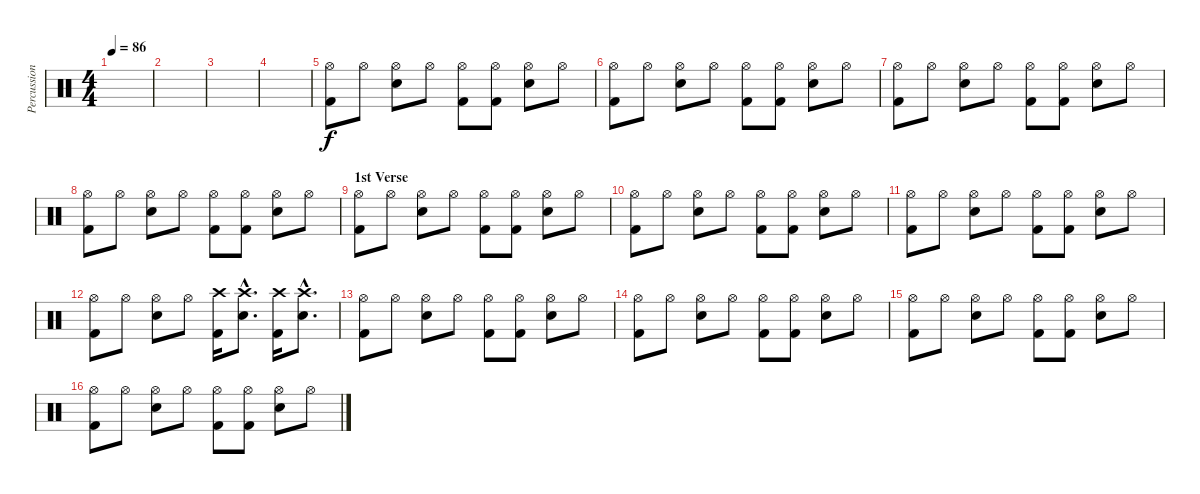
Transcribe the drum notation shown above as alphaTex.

\track ("Percussion" "Percussion") {instrument percussion}
\staff {score}
\articulation defaults
\ts (4 4)
\tempo 86
\clef neutral
\ks c
|
|
|
|
("Hi-Hat (open)" "Kick (hit) 2").8 "Hi-Hat (open)".8 ("Hi-Hat (open)" "Snare (hit) 2").8 "Hi-Hat (open)".8 ("Hi-Hat (open)" "Kick (hit) 2").8 ("Hi-Hat (open)" "Kick (hit) 2").8 ("Hi-Hat (open)" "Snare (hit) 2").8 "Hi-Hat (open)".8 |
("Hi-Hat (open)" "Kick (hit) 2").8 "Hi-Hat (open)".8 ("Hi-Hat (open)" "Snare (hit) 2").8 "Hi-Hat (open)".8 ("Hi-Hat (open)" "Kick (hit) 2").8 ("Hi-Hat (open)" "Kick (hit) 2").8 ("Hi-Hat (open)" "Snare (hit) 2").8 "Hi-Hat (open)".8 |
("Hi-Hat (open)" "Kick (hit) 2").8 "Hi-Hat (open)".8 ("Hi-Hat (open)" "Snare (hit) 2").8 "Hi-Hat (open)".8 ("Hi-Hat (open)" "Kick (hit) 2").8 ("Hi-Hat (open)" "Kick (hit) 2").8 ("Hi-Hat (open)" "Snare (hit) 2").8 "Hi-Hat (open)".8 |
("Hi-Hat (open)" "Kick (hit) 2").8 "Hi-Hat (open)".8 ("Hi-Hat (open)" "Snare (hit) 2").8 "Hi-Hat (open)".8 ("Hi-Hat (open)" "Kick (hit) 2").8 ("Hi-Hat (open)" "Kick (hit) 2").8 ("Hi-Hat (open)" "Snare (hit) 2").8 "Hi-Hat (open)".8 |
\section ("" "1st Verse")
("Hi-Hat (open)" "Kick (hit) 2").8 "Hi-Hat (open)".8 ("Hi-Hat (open)" "Snare (hit) 2").8 "Hi-Hat (open)".8 ("Hi-Hat (open)" "Kick (hit) 2").8 ("Hi-Hat (open)" "Kick (hit) 2").8 ("Hi-Hat (open)" "Snare (hit) 2").8 "Hi-Hat (open)".8 |
("Hi-Hat (open)" "Kick (hit) 2").8 "Hi-Hat (open)".8 ("Hi-Hat (open)" "Snare (hit) 2").8 "Hi-Hat (open)".8 ("Hi-Hat (open)" "Kick (hit) 2").8 ("Hi-Hat (open)" "Kick (hit) 2").8 ("Hi-Hat (open)" "Snare (hit) 2").8 "Hi-Hat (open)".8 |
("Hi-Hat (open)" "Kick (hit) 2").8 "Hi-Hat (open)".8 ("Hi-Hat (open)" "Snare (hit) 2").8 "Hi-Hat (open)".8 ("Hi-Hat (open)" "Kick (hit) 2").8 ("Hi-Hat (open)" "Kick (hit) 2").8 ("Hi-Hat (open)" "Snare (hit) 2").8 "Hi-Hat (open)".8 |
("Hi-Hat (open)" "Kick (hit) 2").8 "Hi-Hat (open)".8 ("Hi-Hat (open)" "Snare (hit) 2").8 "Hi-Hat (open)".8 ("Crash high (hit)" "Kick (hit) 2").16 ("Crash high (hit)"{hac} "Snare (hit) 2"{hac}).8{d} ("Crash high (hit)" "Kick (hit) 2").16 ("Crash high (hit)"{hac} "Snare (hit) 2"{hac}).8{d} |
("Hi-Hat (open)" "Kick (hit) 2").8 "Hi-Hat (open)".8 ("Hi-Hat (open)" "Snare (hit) 2").8 "Hi-Hat (open)".8 ("Hi-Hat (open)" "Kick (hit) 2").8 ("Hi-Hat (open)" "Kick (hit) 2").8 ("Hi-Hat (open)" "Snare (hit) 2").8 "Hi-Hat (open)".8 |
("Hi-Hat (open)" "Kick (hit) 2").8 "Hi-Hat (open)".8 ("Hi-Hat (open)" "Snare (hit) 2").8 "Hi-Hat (open)".8 ("Hi-Hat (open)" "Kick (hit) 2").8 ("Hi-Hat (open)" "Kick (hit) 2").8 ("Hi-Hat (open)" "Snare (hit) 2").8 "Hi-Hat (open)".8 |
("Hi-Hat (open)" "Kick (hit) 2").8 "Hi-Hat (open)".8 ("Hi-Hat (open)" "Snare (hit) 2").8 "Hi-Hat (open)".8 ("Hi-Hat (open)" "Kick (hit) 2").8 ("Hi-Hat (open)" "Kick (hit) 2").8 ("Hi-Hat (open)" "Snare (hit) 2").8 "Hi-Hat (open)".8 |
("Hi-Hat (open)" "Kick (hit) 2").8 "Hi-Hat (open)".8 ("Hi-Hat (open)" "Snare (hit) 2").8 "Hi-Hat (open)".8 ("Hi-Hat (open)" "Kick (hit) 2").8 ("Hi-Hat (open)" "Kick (hit) 2").8 ("Hi-Hat (open)" "Snare (hit) 2").8 "Hi-Hat (open)".8
